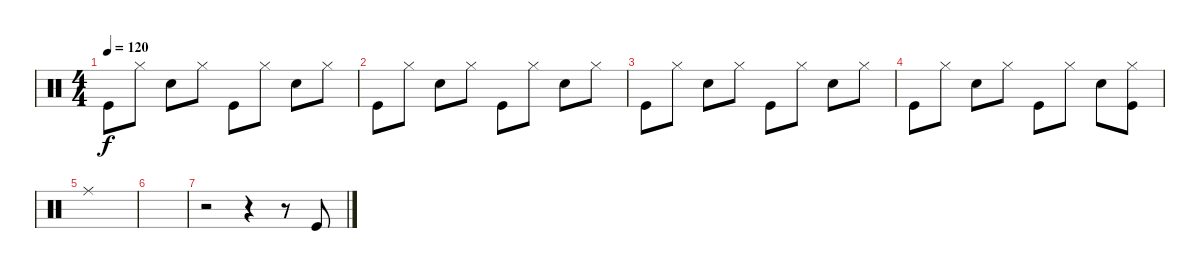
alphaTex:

\track "" {instrument percussion}
\staff {score}
\articulation defaults
\ts (4 4)
\tempo 120
\clef neutral
\ks c "Kick (hit)".8{dy f} "Hi-Hat (closed)".8 "Electric Snare (hit)".8 "Hi-Hat (closed)".8 "Kick (hit)".8 "Hi-Hat (closed)".8 "Electric Snare (hit)".8 "Hi-Hat (closed)".8
|
"Kick (hit)".8 "Hi-Hat (closed)".8 "Electric Snare (hit)".8 "Hi-Hat (closed)".8 "Kick (hit)".8 "Hi-Hat (closed)".8 "Electric Snare (hit)".8 "Hi-Hat (closed)".8 |
"Kick (hit)".8 "Hi-Hat (closed)".8 "Electric Snare (hit)".8 "Hi-Hat (closed)".8 "Kick (hit)".8 "Hi-Hat (closed)".8 "Electric Snare (hit)".8 "Hi-Hat (closed)".8 |
"Kick (hit)".8 "Hi-Hat (closed)".8 "Electric Snare (hit)".8 "Hi-Hat (closed)".8 "Kick (hit)".8 "Hi-Hat (closed)".8 "Electric Snare (hit)".8 ("Kick (hit)" "Hi-Hat (closed)").8 |
"Ride (middle)".1 |
|
r.2 r.4 r.8 "Kick (hit)".8
